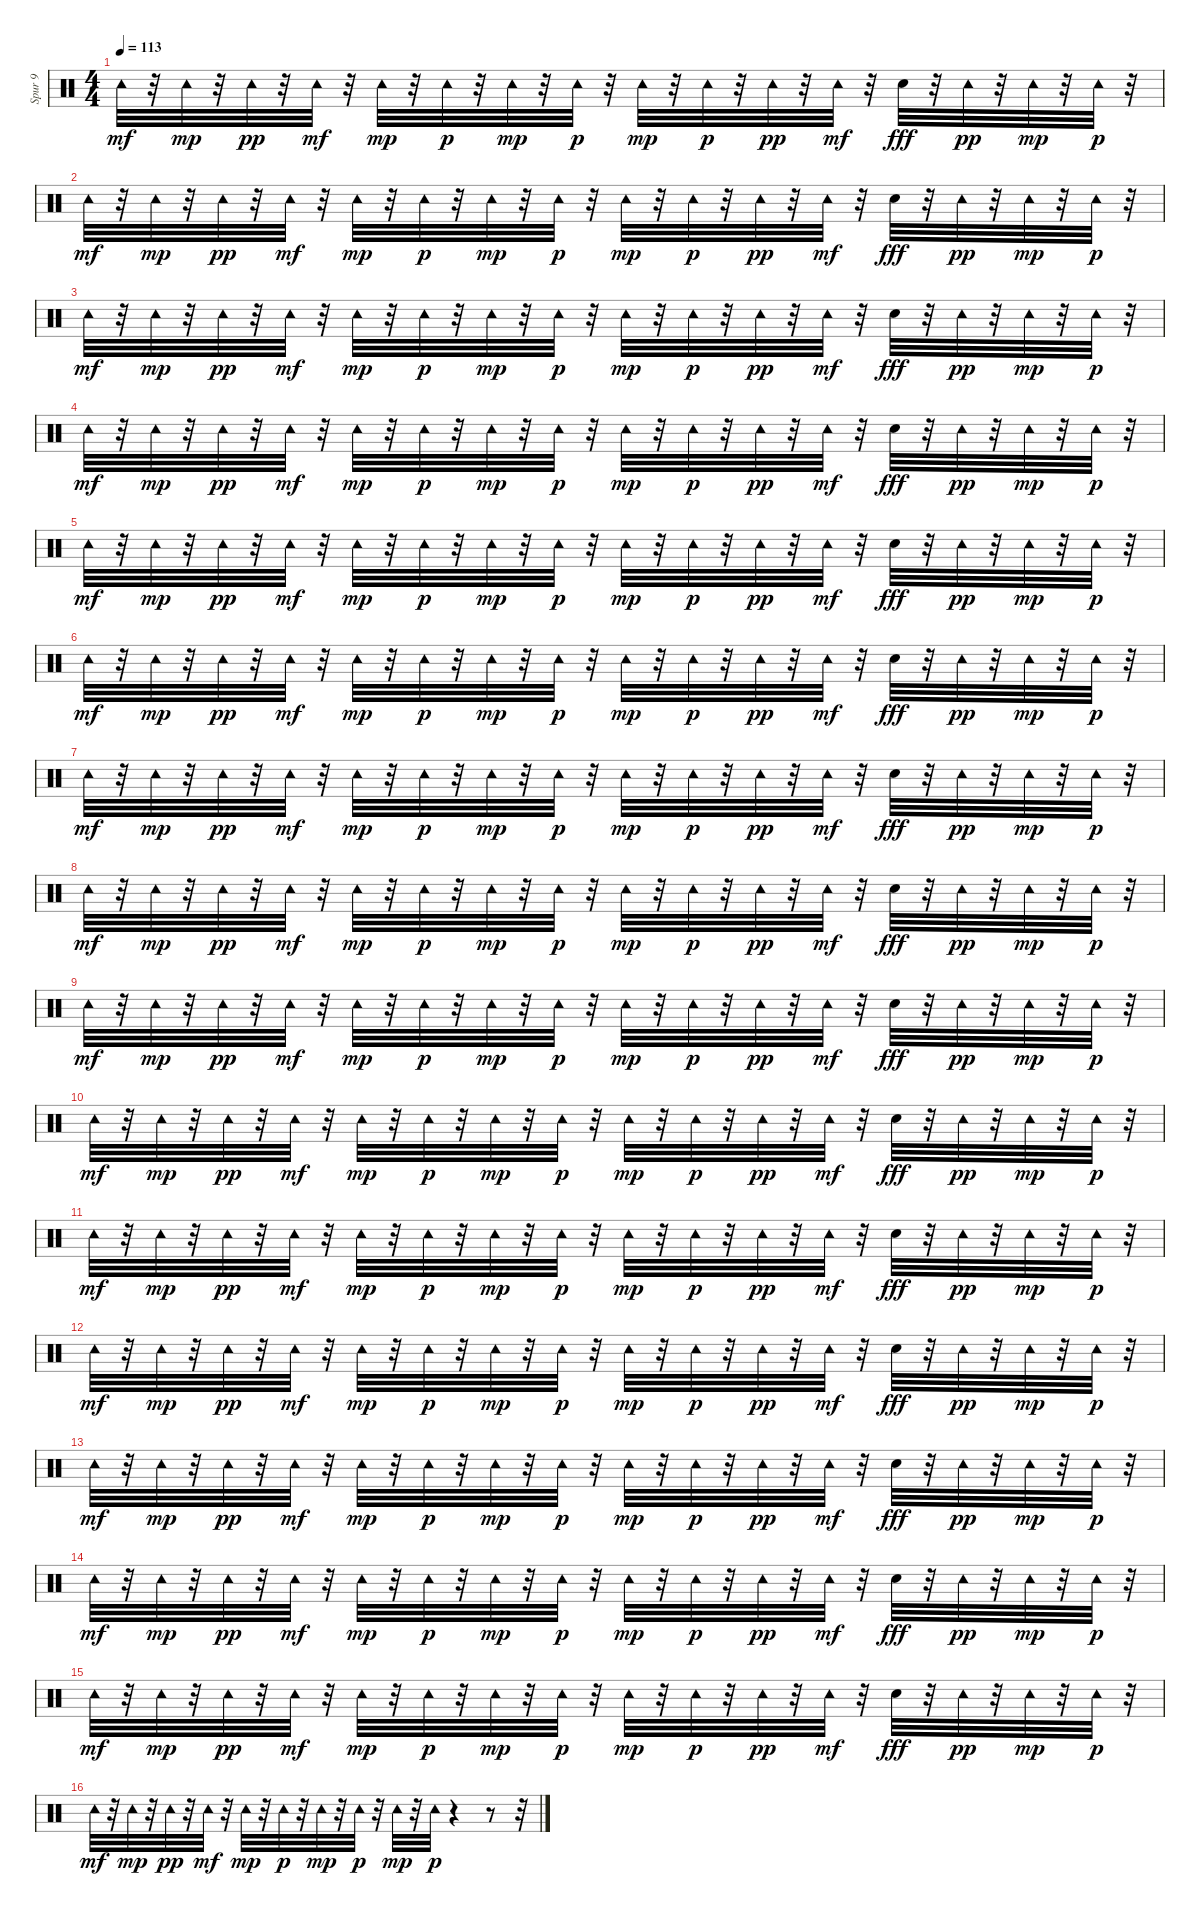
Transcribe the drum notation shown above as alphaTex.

\track ("Spur 9" "Spur 9") {instrument percussion}
\staff {score}
\articulation defaults
\ts (4 4)
\tempo 113
\clef neutral
\ks c "Tambourine (hit)".32{dy mf}
r.32 "Tambourine (hit)".32{dy mp} r.32 "Tambourine (hit)".32{dy pp} r.32 "Tambourine (hit)".32{dy mf} r.32 "Tambourine (hit)".32{dy mp} r.32 "Tambourine (hit)".32{dy p} r.32 "Tambourine (hit)".32{dy mp} r.32 "Tambourine (hit)".32{dy p} r.32 "Tambourine (hit)".32{dy mp} r.32 "Tambourine (hit)".32{dy p} r.32 "Tambourine (hit)".32{dy pp} r.32 "Tambourine (hit)".32{dy mf} r.32 "Hand Clap (hit)".32{dy fff} r.32 "Tambourine (hit)".32{dy pp} r.32 "Tambourine (hit)".32{dy mp} r.32 "Tambourine (hit)".32{dy p} r.32 |
"Tambourine (hit)".32{dy mf} r.32 "Tambourine (hit)".32{dy mp} r.32 "Tambourine (hit)".32{dy pp} r.32 "Tambourine (hit)".32{dy mf} r.32 "Tambourine (hit)".32{dy mp} r.32 "Tambourine (hit)".32{dy p} r.32 "Tambourine (hit)".32{dy mp} r.32 "Tambourine (hit)".32{dy p} r.32 "Tambourine (hit)".32{dy mp} r.32 "Tambourine (hit)".32{dy p} r.32 "Tambourine (hit)".32{dy pp} r.32 "Tambourine (hit)".32{dy mf} r.32 "Hand Clap (hit)".32{dy fff} r.32 "Tambourine (hit)".32{dy pp} r.32 "Tambourine (hit)".32{dy mp} r.32 "Tambourine (hit)".32{dy p} r.32 |
"Tambourine (hit)".32{dy mf} r.32 "Tambourine (hit)".32{dy mp} r.32 "Tambourine (hit)".32{dy pp} r.32 "Tambourine (hit)".32{dy mf} r.32 "Tambourine (hit)".32{dy mp} r.32 "Tambourine (hit)".32{dy p} r.32 "Tambourine (hit)".32{dy mp} r.32 "Tambourine (hit)".32{dy p} r.32 "Tambourine (hit)".32{dy mp} r.32 "Tambourine (hit)".32{dy p} r.32 "Tambourine (hit)".32{dy pp} r.32 "Tambourine (hit)".32{dy mf} r.32 "Hand Clap (hit)".32{dy fff} r.32 "Tambourine (hit)".32{dy pp} r.32 "Tambourine (hit)".32{dy mp} r.32 "Tambourine (hit)".32{dy p} r.32 |
"Tambourine (hit)".32{dy mf} r.32 "Tambourine (hit)".32{dy mp} r.32 "Tambourine (hit)".32{dy pp} r.32 "Tambourine (hit)".32{dy mf} r.32 "Tambourine (hit)".32{dy mp} r.32 "Tambourine (hit)".32{dy p} r.32 "Tambourine (hit)".32{dy mp} r.32 "Tambourine (hit)".32{dy p} r.32 "Tambourine (hit)".32{dy mp} r.32 "Tambourine (hit)".32{dy p} r.32 "Tambourine (hit)".32{dy pp} r.32 "Tambourine (hit)".32{dy mf} r.32 "Hand Clap (hit)".32{dy fff} r.32 "Tambourine (hit)".32{dy pp} r.32 "Tambourine (hit)".32{dy mp} r.32 "Tambourine (hit)".32{dy p} r.32 |
"Tambourine (hit)".32{dy mf} r.32 "Tambourine (hit)".32{dy mp} r.32 "Tambourine (hit)".32{dy pp} r.32 "Tambourine (hit)".32{dy mf} r.32 "Tambourine (hit)".32{dy mp} r.32 "Tambourine (hit)".32{dy p} r.32 "Tambourine (hit)".32{dy mp} r.32 "Tambourine (hit)".32{dy p} r.32 "Tambourine (hit)".32{dy mp} r.32 "Tambourine (hit)".32{dy p} r.32 "Tambourine (hit)".32{dy pp} r.32 "Tambourine (hit)".32{dy mf} r.32 "Hand Clap (hit)".32{dy fff} r.32 "Tambourine (hit)".32{dy pp} r.32 "Tambourine (hit)".32{dy mp} r.32 "Tambourine (hit)".32{dy p} r.32 |
"Tambourine (hit)".32{dy mf} r.32 "Tambourine (hit)".32{dy mp} r.32 "Tambourine (hit)".32{dy pp} r.32 "Tambourine (hit)".32{dy mf} r.32 "Tambourine (hit)".32{dy mp} r.32 "Tambourine (hit)".32{dy p} r.32 "Tambourine (hit)".32{dy mp} r.32 "Tambourine (hit)".32{dy p} r.32 "Tambourine (hit)".32{dy mp} r.32 "Tambourine (hit)".32{dy p} r.32 "Tambourine (hit)".32{dy pp} r.32 "Tambourine (hit)".32{dy mf} r.32 "Hand Clap (hit)".32{dy fff} r.32 "Tambourine (hit)".32{dy pp} r.32 "Tambourine (hit)".32{dy mp} r.32 "Tambourine (hit)".32{dy p} r.32 |
"Tambourine (hit)".32{dy mf} r.32 "Tambourine (hit)".32{dy mp} r.32 "Tambourine (hit)".32{dy pp} r.32 "Tambourine (hit)".32{dy mf} r.32 "Tambourine (hit)".32{dy mp} r.32 "Tambourine (hit)".32{dy p} r.32 "Tambourine (hit)".32{dy mp} r.32 "Tambourine (hit)".32{dy p} r.32 "Tambourine (hit)".32{dy mp} r.32 "Tambourine (hit)".32{dy p} r.32 "Tambourine (hit)".32{dy pp} r.32 "Tambourine (hit)".32{dy mf} r.32 "Hand Clap (hit)".32{dy fff} r.32 "Tambourine (hit)".32{dy pp} r.32 "Tambourine (hit)".32{dy mp} r.32 "Tambourine (hit)".32{dy p} r.32 |
"Tambourine (hit)".32{dy mf} r.32 "Tambourine (hit)".32{dy mp} r.32 "Tambourine (hit)".32{dy pp} r.32 "Tambourine (hit)".32{dy mf} r.32 "Tambourine (hit)".32{dy mp} r.32 "Tambourine (hit)".32{dy p} r.32 "Tambourine (hit)".32{dy mp} r.32 "Tambourine (hit)".32{dy p} r.32 "Tambourine (hit)".32{dy mp} r.32 "Tambourine (hit)".32{dy p} r.32 "Tambourine (hit)".32{dy pp} r.32 "Tambourine (hit)".32{dy mf} r.32 "Hand Clap (hit)".32{dy fff} r.32 "Tambourine (hit)".32{dy pp} r.32 "Tambourine (hit)".32{dy mp} r.32 "Tambourine (hit)".32{dy p} r.32 |
"Tambourine (hit)".32{dy mf} r.32 "Tambourine (hit)".32{dy mp} r.32 "Tambourine (hit)".32{dy pp} r.32 "Tambourine (hit)".32{dy mf} r.32 "Tambourine (hit)".32{dy mp} r.32 "Tambourine (hit)".32{dy p} r.32 "Tambourine (hit)".32{dy mp} r.32 "Tambourine (hit)".32{dy p} r.32 "Tambourine (hit)".32{dy mp} r.32 "Tambourine (hit)".32{dy p} r.32 "Tambourine (hit)".32{dy pp} r.32 "Tambourine (hit)".32{dy mf} r.32 "Hand Clap (hit)".32{dy fff} r.32 "Tambourine (hit)".32{dy pp} r.32 "Tambourine (hit)".32{dy mp} r.32 "Tambourine (hit)".32{dy p} r.32 |
"Tambourine (hit)".32{dy mf} r.32 "Tambourine (hit)".32{dy mp} r.32 "Tambourine (hit)".32{dy pp} r.32 "Tambourine (hit)".32{dy mf} r.32 "Tambourine (hit)".32{dy mp} r.32 "Tambourine (hit)".32{dy p} r.32 "Tambourine (hit)".32{dy mp} r.32 "Tambourine (hit)".32{dy p} r.32 "Tambourine (hit)".32{dy mp} r.32 "Tambourine (hit)".32{dy p} r.32 "Tambourine (hit)".32{dy pp} r.32 "Tambourine (hit)".32{dy mf} r.32 "Hand Clap (hit)".32{dy fff} r.32 "Tambourine (hit)".32{dy pp} r.32 "Tambourine (hit)".32{dy mp} r.32 "Tambourine (hit)".32{dy p} r.32 |
"Tambourine (hit)".32{dy mf} r.32 "Tambourine (hit)".32{dy mp} r.32 "Tambourine (hit)".32{dy pp} r.32 "Tambourine (hit)".32{dy mf} r.32 "Tambourine (hit)".32{dy mp} r.32 "Tambourine (hit)".32{dy p} r.32 "Tambourine (hit)".32{dy mp} r.32 "Tambourine (hit)".32{dy p} r.32 "Tambourine (hit)".32{dy mp} r.32 "Tambourine (hit)".32{dy p} r.32 "Tambourine (hit)".32{dy pp} r.32 "Tambourine (hit)".32{dy mf} r.32 "Hand Clap (hit)".32{dy fff} r.32 "Tambourine (hit)".32{dy pp} r.32 "Tambourine (hit)".32{dy mp} r.32 "Tambourine (hit)".32{dy p} r.32 |
"Tambourine (hit)".32{dy mf} r.32 "Tambourine (hit)".32{dy mp} r.32 "Tambourine (hit)".32{dy pp} r.32 "Tambourine (hit)".32{dy mf} r.32 "Tambourine (hit)".32{dy mp} r.32 "Tambourine (hit)".32{dy p} r.32 "Tambourine (hit)".32{dy mp} r.32 "Tambourine (hit)".32{dy p} r.32 "Tambourine (hit)".32{dy mp} r.32 "Tambourine (hit)".32{dy p} r.32 "Tambourine (hit)".32{dy pp} r.32 "Tambourine (hit)".32{dy mf} r.32 "Hand Clap (hit)".32{dy fff} r.32 "Tambourine (hit)".32{dy pp} r.32 "Tambourine (hit)".32{dy mp} r.32 "Tambourine (hit)".32{dy p} r.32 |
"Tambourine (hit)".32{dy mf} r.32 "Tambourine (hit)".32{dy mp} r.32 "Tambourine (hit)".32{dy pp} r.32 "Tambourine (hit)".32{dy mf} r.32 "Tambourine (hit)".32{dy mp} r.32 "Tambourine (hit)".32{dy p} r.32 "Tambourine (hit)".32{dy mp} r.32 "Tambourine (hit)".32{dy p} r.32 "Tambourine (hit)".32{dy mp} r.32 "Tambourine (hit)".32{dy p} r.32 "Tambourine (hit)".32{dy pp} r.32 "Tambourine (hit)".32{dy mf} r.32 "Hand Clap (hit)".32{dy fff} r.32 "Tambourine (hit)".32{dy pp} r.32 "Tambourine (hit)".32{dy mp} r.32 "Tambourine (hit)".32{dy p} r.32 |
"Tambourine (hit)".32{dy mf} r.32 "Tambourine (hit)".32{dy mp} r.32 "Tambourine (hit)".32{dy pp} r.32 "Tambourine (hit)".32{dy mf} r.32 "Tambourine (hit)".32{dy mp} r.32 "Tambourine (hit)".32{dy p} r.32 "Tambourine (hit)".32{dy mp} r.32 "Tambourine (hit)".32{dy p} r.32 "Tambourine (hit)".32{dy mp} r.32 "Tambourine (hit)".32{dy p} r.32 "Tambourine (hit)".32{dy pp} r.32 "Tambourine (hit)".32{dy mf} r.32 "Hand Clap (hit)".32{dy fff} r.32 "Tambourine (hit)".32{dy pp} r.32 "Tambourine (hit)".32{dy mp} r.32 "Tambourine (hit)".32{dy p} r.32 |
"Tambourine (hit)".32{dy mf} r.32 "Tambourine (hit)".32{dy mp} r.32 "Tambourine (hit)".32{dy pp} r.32 "Tambourine (hit)".32{dy mf} r.32 "Tambourine (hit)".32{dy mp} r.32 "Tambourine (hit)".32{dy p} r.32 "Tambourine (hit)".32{dy mp} r.32 "Tambourine (hit)".32{dy p} r.32 "Tambourine (hit)".32{dy mp} r.32 "Tambourine (hit)".32{dy p} r.32 "Tambourine (hit)".32{dy pp} r.32 "Tambourine (hit)".32{dy mf} r.32 "Hand Clap (hit)".32{dy fff} r.32 "Tambourine (hit)".32{dy pp} r.32 "Tambourine (hit)".32{dy mp} r.32 "Tambourine (hit)".32{dy p} r.32 |
"Tambourine (hit)".32{dy mf} r.32 "Tambourine (hit)".32{dy mp} r.32 "Tambourine (hit)".32{dy pp} r.32 "Tambourine (hit)".32{dy mf} r.32 "Tambourine (hit)".32{dy mp} r.32 "Tambourine (hit)".32{dy p} r.32 "Tambourine (hit)".32{dy mp} r.32 "Tambourine (hit)".32{dy p} r.32 "Tambourine (hit)".32{dy mp} r.32 "Tambourine (hit)".32{dy p} r.4 r.8 r.32
